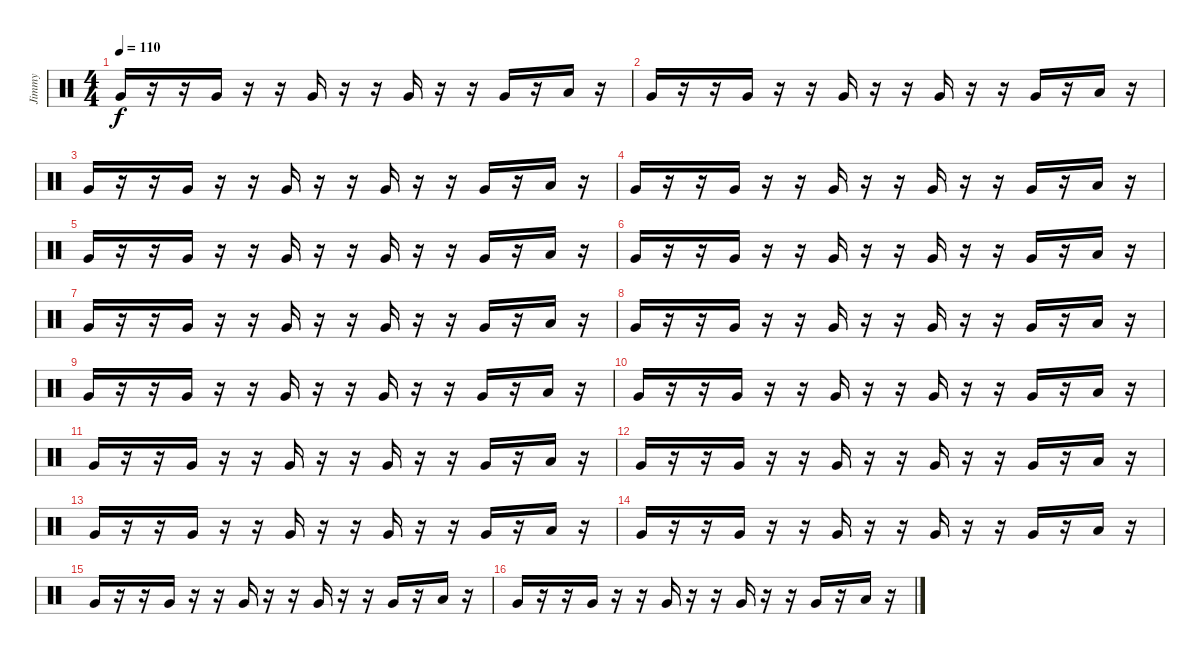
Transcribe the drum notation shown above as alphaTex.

\track ("Jimmy" "Jimmy") {instrument percussion}
\staff {score}
\articulation defaults
\ts (4 4)
\tempo 110
\clef neutral
\ks c "Very Low Tom (hit)".16{dy f}
r.16 r.16 "Very Low Tom (hit)".16 r.16 r.16 "Very Low Tom (hit)".16 r.16 r.16 "Very Low Tom (hit)".16 r.16 r.16 "Very Low Tom (hit)".16 r.16 "Low Tom (hit)".16 r.16 |
"Very Low Tom (hit)".16 r.16 r.16 "Very Low Tom (hit)".16 r.16 r.16 "Very Low Tom (hit)".16 r.16 r.16 "Very Low Tom (hit)".16 r.16 r.16 "Very Low Tom (hit)".16 r.16 "Low Tom (hit)".16 r.16 |
"Very Low Tom (hit)".16 r.16 r.16 "Very Low Tom (hit)".16 r.16 r.16 "Very Low Tom (hit)".16 r.16 r.16 "Very Low Tom (hit)".16 r.16 r.16 "Very Low Tom (hit)".16 r.16 "Low Tom (hit)".16 r.16 |
"Very Low Tom (hit)".16 r.16 r.16 "Very Low Tom (hit)".16 r.16 r.16 "Very Low Tom (hit)".16 r.16 r.16 "Very Low Tom (hit)".16 r.16 r.16 "Very Low Tom (hit)".16 r.16 "Low Tom (hit)".16 r.16 |
"Very Low Tom (hit)".16 r.16 r.16 "Very Low Tom (hit)".16 r.16 r.16 "Very Low Tom (hit)".16 r.16 r.16 "Very Low Tom (hit)".16 r.16 r.16 "Very Low Tom (hit)".16 r.16 "Low Tom (hit)".16 r.16 |
"Very Low Tom (hit)".16 r.16 r.16 "Very Low Tom (hit)".16 r.16 r.16 "Very Low Tom (hit)".16 r.16 r.16 "Very Low Tom (hit)".16 r.16 r.16 "Very Low Tom (hit)".16 r.16 "Low Tom (hit)".16 r.16 |
"Very Low Tom (hit)".16 r.16 r.16 "Very Low Tom (hit)".16 r.16 r.16 "Very Low Tom (hit)".16 r.16 r.16 "Very Low Tom (hit)".16 r.16 r.16 "Very Low Tom (hit)".16 r.16 "Low Tom (hit)".16 r.16 |
"Very Low Tom (hit)".16 r.16 r.16 "Very Low Tom (hit)".16 r.16 r.16 "Very Low Tom (hit)".16 r.16 r.16 "Very Low Tom (hit)".16 r.16 r.16 "Very Low Tom (hit)".16 r.16 "Low Tom (hit)".16 r.16 |
"Very Low Tom (hit)".16 r.16 r.16 "Very Low Tom (hit)".16 r.16 r.16 "Very Low Tom (hit)".16 r.16 r.16 "Very Low Tom (hit)".16 r.16 r.16 "Very Low Tom (hit)".16 r.16 "Low Tom (hit)".16 r.16 |
"Very Low Tom (hit)".16 r.16 r.16 "Very Low Tom (hit)".16 r.16 r.16 "Very Low Tom (hit)".16 r.16 r.16 "Very Low Tom (hit)".16 r.16 r.16 "Very Low Tom (hit)".16 r.16 "Low Tom (hit)".16 r.16 |
"Very Low Tom (hit)".16 r.16 r.16 "Very Low Tom (hit)".16 r.16 r.16 "Very Low Tom (hit)".16 r.16 r.16 "Very Low Tom (hit)".16 r.16 r.16 "Very Low Tom (hit)".16 r.16 "Low Tom (hit)".16 r.16 |
"Very Low Tom (hit)".16 r.16 r.16 "Very Low Tom (hit)".16 r.16 r.16 "Very Low Tom (hit)".16 r.16 r.16 "Very Low Tom (hit)".16 r.16 r.16 "Very Low Tom (hit)".16 r.16 "Low Tom (hit)".16 r.16 |
"Very Low Tom (hit)".16 r.16 r.16 "Very Low Tom (hit)".16 r.16 r.16 "Very Low Tom (hit)".16 r.16 r.16 "Very Low Tom (hit)".16 r.16 r.16 "Very Low Tom (hit)".16 r.16 "Low Tom (hit)".16 r.16 |
"Very Low Tom (hit)".16 r.16 r.16 "Very Low Tom (hit)".16 r.16 r.16 "Very Low Tom (hit)".16 r.16 r.16 "Very Low Tom (hit)".16 r.16 r.16 "Very Low Tom (hit)".16 r.16 "Low Tom (hit)".16 r.16 |
"Very Low Tom (hit)".16 r.16 r.16 "Very Low Tom (hit)".16 r.16 r.16 "Very Low Tom (hit)".16 r.16 r.16 "Very Low Tom (hit)".16 r.16 r.16 "Very Low Tom (hit)".16 r.16 "Low Tom (hit)".16 r.16 |
"Very Low Tom (hit)".16 r.16 r.16 "Very Low Tom (hit)".16 r.16 r.16 "Very Low Tom (hit)".16 r.16 r.16 "Very Low Tom (hit)".16 r.16 r.16 "Very Low Tom (hit)".16 r.16 "Low Tom (hit)".16 r.16
